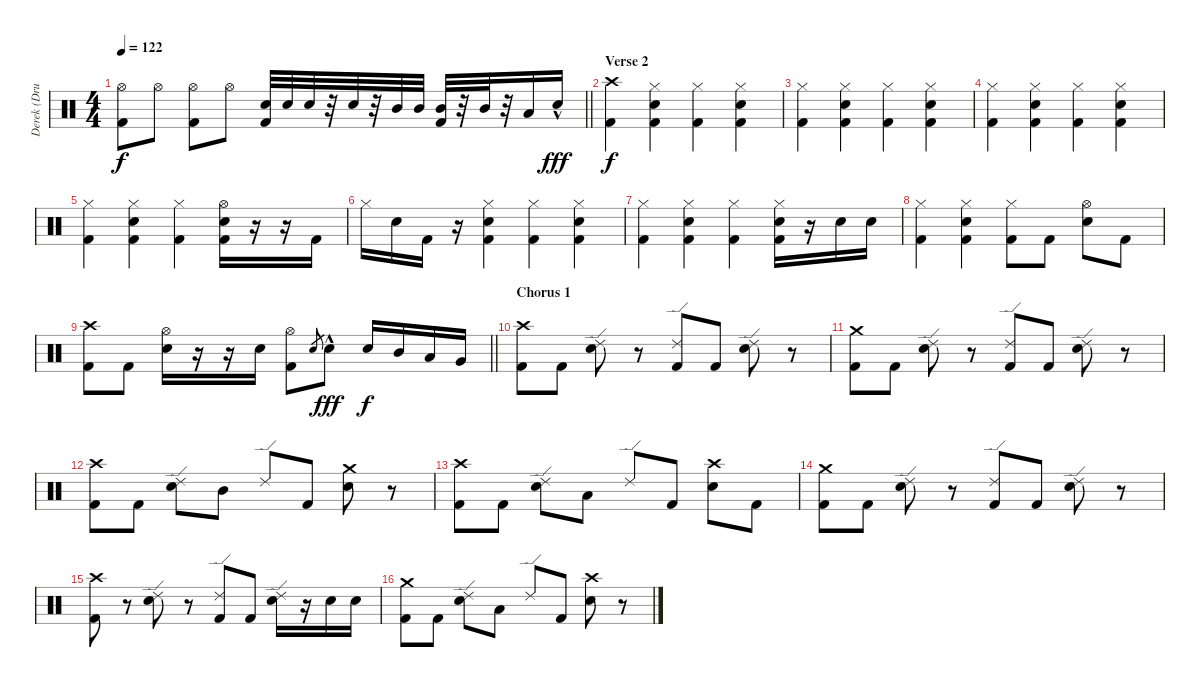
\track ("Derek (Drums)" "Derek (Dru") {instrument percussion}
\staff {score}
\articulation defaults
\ts (4 4)
\tempo 122
\clef neutral
\barLineRight lightlight
\ks c
("Hi-Hat (open)" "Kick (hit) 2").8{dy f} "Hi-Hat (open)".8 ("Hi-Hat (open)" "Kick (hit) 2").8 "Hi-Hat (open)".8 ("Electric Snare (hit)" "Kick (hit) 2").32 "Electric Snare (hit)".32 "Electric Snare (hit)".32 r.32 "Electric Snare (hit)".32 r.32 "Mid Tom (hit)".32 "Mid Tom (hit)".32 ("Mid Tom (hit)" "Kick (hit) 2").32 r.32 "Mid Tom (hit)".32 r.32 "Low Tom (hit)".16 "Electric Snare (hit)"{hac}.16{dy fff} |
\section ("" "Verse 2")
("Crash high (hit)" "Kick (hit) 2").4{dy f} ("Hi-Hat (closed)" "Electric Snare (hit)" "Kick (hit) 2").4 ("Hi-Hat (closed)" "Kick (hit) 2").4 ("Hi-Hat (closed)" "Electric Snare (hit)" "Kick (hit) 2").4 |
("Hi-Hat (closed)" "Kick (hit) 2").4 ("Hi-Hat (closed)" "Electric Snare (hit)" "Kick (hit) 2").4 ("Hi-Hat (closed)" "Kick (hit) 2").4 ("Hi-Hat (closed)" "Electric Snare (hit)" "Kick (hit) 2").4 |
("Hi-Hat (closed)" "Kick (hit) 2").4 ("Hi-Hat (closed)" "Electric Snare (hit)" "Kick (hit) 2").4 ("Hi-Hat (closed)" "Kick (hit) 2").4 ("Hi-Hat (closed)" "Electric Snare (hit)" "Kick (hit) 2").4 |
("Hi-Hat (closed)" "Kick (hit) 2").4 ("Hi-Hat (closed)" "Electric Snare (hit)" "Kick (hit) 2").4 ("Hi-Hat (closed)" "Kick (hit) 2").4 ("Hi-Hat (open)" "Electric Snare (hit)" "Kick (hit) 2").16 r.16 r.16 "Kick (hit) 2".16 |
"Hi-Hat (closed)".16 "Snare (hit) 2".16 "Kick (hit) 2".16 r.16 ("Hi-Hat (closed)" "Electric Snare (hit)" "Kick (hit) 2").4 ("Hi-Hat (closed)" "Kick (hit) 2").4 ("Hi-Hat (closed)" "Electric Snare (hit)" "Kick (hit) 2").4 |
("Hi-Hat (closed)" "Kick (hit) 2").4 ("Hi-Hat (closed)" "Electric Snare (hit)" "Kick (hit) 2").4 ("Hi-Hat (closed)" "Kick (hit) 2").4 ("Hi-Hat (closed)" "Electric Snare (hit)" "Kick (hit) 2").16 r.16 "Electric Snare (hit)".16 "Electric Snare (hit)".16 |
("Hi-Hat (closed)" "Kick (hit) 2").4 ("Hi-Hat (closed)" "Electric Snare (hit)" "Kick (hit) 2").4 ("Hi-Hat (closed)" "Kick (hit) 2").8 "Kick (hit) 2".8 ("Hi-Hat (open)" "Electric Snare (hit)").8 "Kick (hit) 2".8 |
\barLineRight lightlight
("Crash high (hit)" "Kick (hit) 2").8 "Kick (hit) 2".8 ("Hi-Hat (open)" "Electric Snare (hit)").16 r.16 r.16 "Electric Snare (hit)".16 ("Hi-Hat (open)" "Kick (hit) 2").8 "Electric Snare (hit)".8{gr} "Electric Snare (hit)"{hac}.8{dy fff} "Electric Snare (hit)".16{dy f} "Mid Tom (hit)".16 "Low Tom (hit)".16 "Very Low Tom (hit)".16 |
\section ("" "Chorus 1")
("Crash high (hit)" "Kick (hit) 2").8 "Kick (hit) 2".8 ("Ride (edge) 2" "Electric Snare (hit)").8 r.8 ("Ride (edge) 2" "Kick (hit) 2").8 "Kick (hit) 2".8 ("Ride (edge) 2" "Electric Snare (hit)").8 r.8 |
("Crash medium (hit)" "Kick (hit) 2").8 "Kick (hit) 2".8 ("Ride (edge) 2" "Electric Snare (hit)").8 r.8 ("Ride (edge) 2" "Kick (hit) 2").8 "Kick (hit) 2".8 ("Ride (edge) 2" "Electric Snare (hit)").8 r.8 |
("Crash high (hit)" "Kick (hit) 2").8 "Kick (hit) 2".8 ("Ride (edge) 2" "Electric Snare (hit)").8 "Mid Tom (hit)".8 "Ride (edge) 2".8 "Kick (hit) 2".8 ("Crash medium (hit)" "Electric Snare (hit)").8 r.8 |
("Crash high (hit)" "Kick (hit) 2").8 "Kick (hit) 2".8 ("Ride (edge) 2" "Electric Snare (hit)").8 "Low Tom (hit)".8 "Ride (edge) 2".8 "Kick (hit) 2".8 ("Crash high (hit)" "Electric Snare (hit)").8 "Kick (hit) 2".8 |
("Crash medium (hit)" "Kick (hit) 2").8 "Kick (hit) 2".8 ("Ride (edge) 2" "Electric Snare (hit)").8 r.8 ("Ride (edge) 2" "Kick (hit) 2").8 "Kick (hit) 2".8 ("Ride (edge) 2" "Electric Snare (hit)").8 r.8 |
("Crash high (hit)" "Kick (hit) 2").8 r.8 ("Ride (edge) 2" "Electric Snare (hit)").8 r.8 ("Ride (edge) 2" "Kick (hit) 2").8 "Kick (hit) 2".8 ("Ride (edge) 2" "Electric Snare (hit)").16 r.16 "Electric Snare (hit)".16 "Electric Snare (hit)".16 |
("Crash medium (hit)" "Kick (hit) 2").8 "Kick (hit) 2".8 ("Ride (edge) 2" "Electric Snare (hit)").8 "Low Tom (hit)".8 "Ride (edge) 2".8 "Kick (hit) 2".8 ("Crash high (hit)" "Electric Snare (hit)").8 r.8
